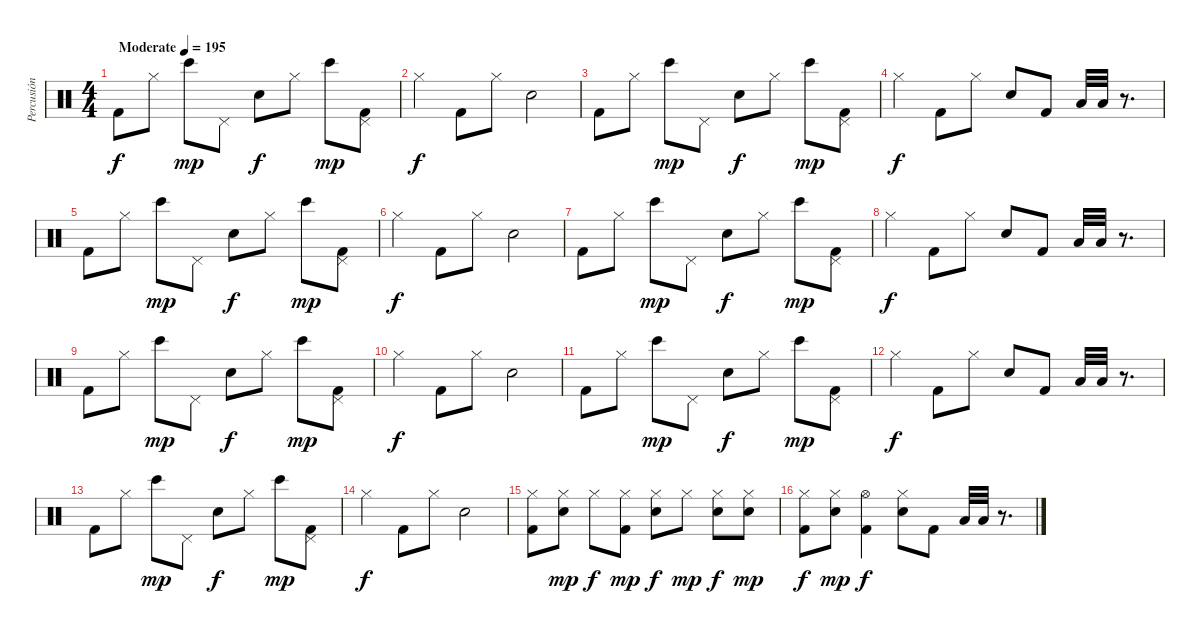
\track ("Percusión" "Percusión") {instrument percussion}
\staff {score}
\articulation defaults
\ts (4 4)
\tempo (195 "Moderate")
\clef neutral
\ks c "Kick (hit) 2".8{dy f} "Hi-Hat (closed)".8 "Bongo High (hit)".8{dy mp} "Pedal Hi-Hat (hit)".8 "Electric Snare (hit)".8{dy f} "Hi-Hat (closed)".8 "Bongo High (hit)".8{dy mp}
("Pedal Hi-Hat (hit)" "Kick (hit) 2").8 |
"Hi-Hat (closed)".4{dy f} "Kick (hit) 2".8 "Hi-Hat (closed)".8 "Electric Snare (hit)".2 |
"Kick (hit) 2".8 "Hi-Hat (closed)".8 "Bongo High (hit)".8{dy mp} "Pedal Hi-Hat (hit)".8 "Electric Snare (hit)".8{dy f} "Hi-Hat (closed)".8 "Bongo High (hit)".8{dy mp} ("Pedal Hi-Hat (hit)" "Kick (hit) 2").8 |
"Hi-Hat (closed)".4{dy f} "Kick (hit) 2".8 "Hi-Hat (closed)".8 "Electric Snare (hit)".8 "Kick (hit) 2".8 "Low Floor Tom (hit)".32 "Low Floor Tom (hit)".32 r.8{d} |
"Kick (hit) 2".8 "Hi-Hat (closed)".8 "Bongo High (hit)".8{dy mp} "Pedal Hi-Hat (hit)".8 "Electric Snare (hit)".8{dy f} "Hi-Hat (closed)".8 "Bongo High (hit)".8{dy mp} ("Pedal Hi-Hat (hit)" "Kick (hit) 2").8 |
"Hi-Hat (closed)".4{dy f} "Kick (hit) 2".8 "Hi-Hat (closed)".8 "Electric Snare (hit)".2 |
"Kick (hit) 2".8 "Hi-Hat (closed)".8 "Bongo High (hit)".8{dy mp} "Pedal Hi-Hat (hit)".8 "Electric Snare (hit)".8{dy f} "Hi-Hat (closed)".8 "Bongo High (hit)".8{dy mp} ("Pedal Hi-Hat (hit)" "Kick (hit) 2").8 |
"Hi-Hat (closed)".4{dy f} "Kick (hit) 2".8 "Hi-Hat (closed)".8 "Electric Snare (hit)".8 "Kick (hit) 2".8 "Low Floor Tom (hit)".32 "Low Floor Tom (hit)".32 r.8{d} |
"Kick (hit) 2".8 "Hi-Hat (closed)".8 "Bongo High (hit)".8{dy mp} "Pedal Hi-Hat (hit)".8 "Electric Snare (hit)".8{dy f} "Hi-Hat (closed)".8 "Bongo High (hit)".8{dy mp} ("Pedal Hi-Hat (hit)" "Kick (hit) 2").8 |
"Hi-Hat (closed)".4{dy f} "Kick (hit) 2".8 "Hi-Hat (closed)".8 "Electric Snare (hit)".2 |
"Kick (hit) 2".8 "Hi-Hat (closed)".8 "Bongo High (hit)".8{dy mp} "Pedal Hi-Hat (hit)".8 "Electric Snare (hit)".8{dy f} "Hi-Hat (closed)".8 "Bongo High (hit)".8{dy mp} ("Pedal Hi-Hat (hit)" "Kick (hit) 2").8 |
"Hi-Hat (closed)".4{dy f} "Kick (hit) 2".8 "Hi-Hat (closed)".8 "Electric Snare (hit)".8 "Kick (hit) 2".8 "Low Floor Tom (hit)".32 "Low Floor Tom (hit)".32 r.8{d} |
"Kick (hit) 2".8 "Hi-Hat (closed)".8 "Bongo High (hit)".8{dy mp} "Pedal Hi-Hat (hit)".8 "Electric Snare (hit)".8{dy f} "Hi-Hat (closed)".8 "Bongo High (hit)".8{dy mp} ("Pedal Hi-Hat (hit)" "Kick (hit) 2").8 |
"Hi-Hat (closed)".4{dy f} "Kick (hit) 2".8 "Hi-Hat (closed)".8 "Electric Snare (hit)".2 |
("Hi-Hat (closed)" "Kick (hit) 2").8 ("Hi-Hat (closed)" "Electric Snare (hit)").8{dy mp} "Hi-Hat (closed)".8{dy f} ("Hi-Hat (closed)" "Kick (hit) 2").8{dy mp} ("Hi-Hat (closed)" "Electric Snare (hit)").8{dy f} "Hi-Hat (closed)".8{dy mp} ("Hi-Hat (closed)" "Electric Snare (hit)").8{dy f} ("Hi-Hat (closed)" "Electric Snare (hit)").8{dy mp} |
("Hi-Hat (closed)" "Kick (hit) 2").8{dy f} ("Hi-Hat (closed)" "Electric Snare (hit)").8{dy mp} ("Hi-Hat (open)" "Kick (hit) 2").4{dy f} ("Hi-Hat (closed)" "Electric Snare (hit)").8 "Kick (hit) 2".8 "Low Floor Tom (hit)".32 "Low Floor Tom (hit)".32 r.8{d}
